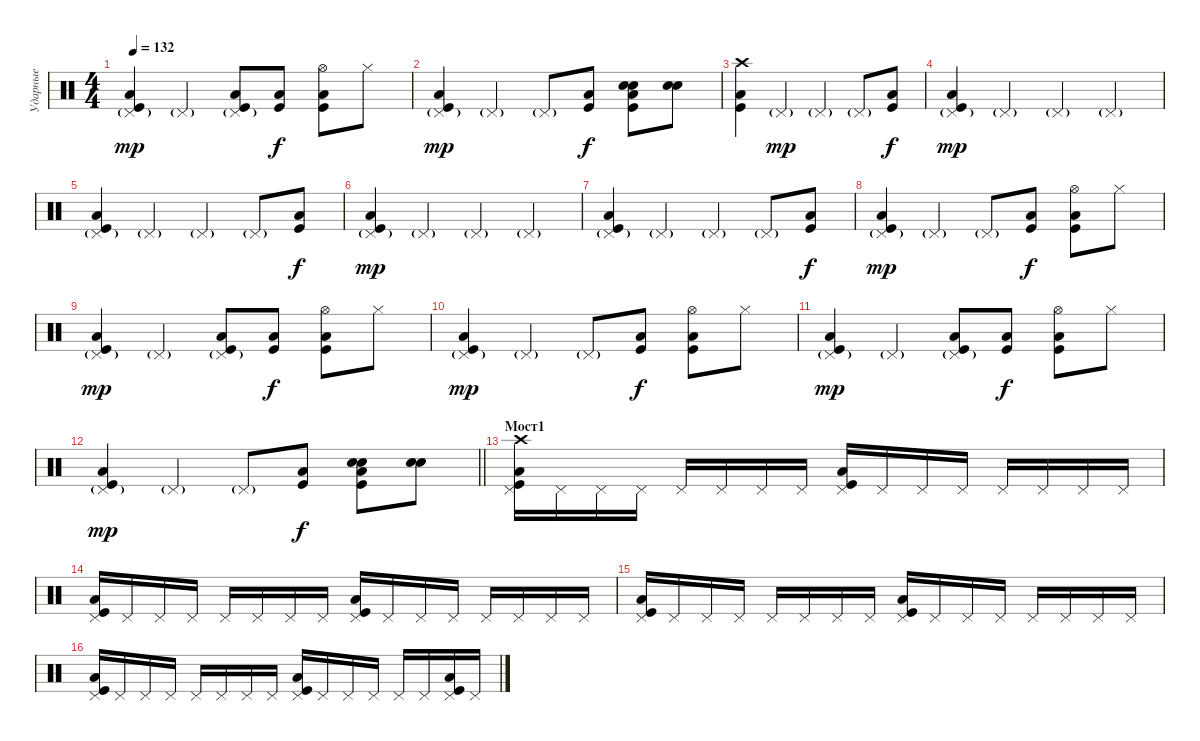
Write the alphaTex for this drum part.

\track ("Ударные" "Ударные") {instrument percussion}
\staff {score}
\articulation defaults
\ts (4 4)
\tempo 132
\clef neutral
\ks c
("Pedal Hi-Hat (hit)"{g} "Low Tom (hit)" "Kick (hit)").4{dy mp} "Pedal Hi-Hat (hit)"{g}.4 ("Pedal Hi-Hat (hit)"{g} "Low Tom (hit)" "Kick (hit)").8 ("Low Tom (hit)" "Kick (hit)").8{dy f} ("Hi-Hat (open)" "Low Tom (hit)" "Kick (hit)").8 "Hi-Hat (closed)".8 |
("Pedal Hi-Hat (hit)"{g} "Low Tom (hit)" "Kick (hit)").4{dy mp} "Pedal Hi-Hat (hit)"{g}.4 "Pedal Hi-Hat (hit)"{g}.8 ("Low Tom (hit)" "Kick (hit)").8{dy f} ("Electric Snare (hit)" "Snare (hit) 2" "Low Tom (hit)" "Kick (hit)").8 ("Electric Snare (hit)" "Snare (hit) 2").8 |
("Crash high (hit)" "Low Tom (hit)" "Kick (hit)").4 "Pedal Hi-Hat (hit)"{g}.4{dy mp} "Pedal Hi-Hat (hit)"{g}.4 "Pedal Hi-Hat (hit)"{g}.8 ("Low Tom (hit)" "Kick (hit)").8{dy f} |
("Pedal Hi-Hat (hit)"{g} "Low Tom (hit)" "Kick (hit)").4{dy mp} "Pedal Hi-Hat (hit)"{g}.4 "Pedal Hi-Hat (hit)"{g}.4 "Pedal Hi-Hat (hit)"{g}.4 |
("Pedal Hi-Hat (hit)"{g} "Low Tom (hit)" "Kick (hit)").4 "Pedal Hi-Hat (hit)"{g}.4 "Pedal Hi-Hat (hit)"{g}.4 "Pedal Hi-Hat (hit)"{g}.8 ("Low Tom (hit)" "Kick (hit)").8{dy f} |
("Pedal Hi-Hat (hit)"{g} "Low Tom (hit)" "Kick (hit)").4{dy mp} "Pedal Hi-Hat (hit)"{g}.4 "Pedal Hi-Hat (hit)"{g}.4 "Pedal Hi-Hat (hit)"{g}.4 |
("Pedal Hi-Hat (hit)"{g} "Low Tom (hit)" "Kick (hit)").4 "Pedal Hi-Hat (hit)"{g}.4 "Pedal Hi-Hat (hit)"{g}.4 "Pedal Hi-Hat (hit)"{g}.8 ("Low Tom (hit)" "Kick (hit)").8{dy f} |
("Pedal Hi-Hat (hit)"{g} "Low Tom (hit)" "Kick (hit)").4{dy mp} "Pedal Hi-Hat (hit)"{g}.4 "Pedal Hi-Hat (hit)"{g}.8 ("Low Tom (hit)" "Kick (hit)").8{dy f} ("Hi-Hat (open)" "Low Tom (hit)" "Kick (hit)").8 "Hi-Hat (closed)".8 |
("Pedal Hi-Hat (hit)"{g} "Low Tom (hit)" "Kick (hit)").4{dy mp} "Pedal Hi-Hat (hit)"{g}.4 ("Pedal Hi-Hat (hit)"{g} "Low Tom (hit)" "Kick (hit)").8 ("Low Tom (hit)" "Kick (hit)").8{dy f} ("Hi-Hat (open)" "Low Tom (hit)" "Kick (hit)").8 "Hi-Hat (closed)".8 |
("Pedal Hi-Hat (hit)"{g} "Low Tom (hit)" "Kick (hit)").4{dy mp} "Pedal Hi-Hat (hit)"{g}.4 "Pedal Hi-Hat (hit)"{g}.8 ("Low Tom (hit)" "Kick (hit)").8{dy f} ("Hi-Hat (open)" "Low Tom (hit)" "Kick (hit)").8 "Hi-Hat (closed)".8 |
("Pedal Hi-Hat (hit)"{g} "Low Tom (hit)" "Kick (hit)").4{dy mp} "Pedal Hi-Hat (hit)"{g}.4 ("Pedal Hi-Hat (hit)"{g} "Low Tom (hit)" "Kick (hit)").8 ("Low Tom (hit)" "Kick (hit)").8{dy f} ("Hi-Hat (open)" "Low Tom (hit)" "Kick (hit)").8 "Hi-Hat (closed)".8 |
\barLineRight lightlight
("Pedal Hi-Hat (hit)"{g} "Low Tom (hit)" "Kick (hit)").4{dy mp} "Pedal Hi-Hat (hit)"{g}.4 "Pedal Hi-Hat (hit)"{g}.8 ("Low Tom (hit)" "Kick (hit)").8{dy f} ("Electric Snare (hit)" "Snare (hit) 2" "Low Tom (hit)" "Kick (hit)").8 ("Electric Snare (hit)" "Snare (hit) 2").8 |
\section ("" "Мост1")
("Pedal Hi-Hat (hit)" "Crash high (hit)" "Low Tom (hit)" "Kick (hit)").16 "Pedal Hi-Hat (hit)".16 "Pedal Hi-Hat (hit)".16 "Pedal Hi-Hat (hit)".16 "Pedal Hi-Hat (hit)".16 "Pedal Hi-Hat (hit)".16 "Pedal Hi-Hat (hit)".16 "Pedal Hi-Hat (hit)".16 ("Pedal Hi-Hat (hit)" "Low Tom (hit)" "Kick (hit)").16 "Pedal Hi-Hat (hit)".16 "Pedal Hi-Hat (hit)".16 "Pedal Hi-Hat (hit)".16 "Pedal Hi-Hat (hit)".16 "Pedal Hi-Hat (hit)".16 "Pedal Hi-Hat (hit)".16 "Pedal Hi-Hat (hit)".16 |
("Pedal Hi-Hat (hit)" "Low Tom (hit)" "Kick (hit)").16 "Pedal Hi-Hat (hit)".16 "Pedal Hi-Hat (hit)".16 "Pedal Hi-Hat (hit)".16 "Pedal Hi-Hat (hit)".16 "Pedal Hi-Hat (hit)".16 "Pedal Hi-Hat (hit)".16 "Pedal Hi-Hat (hit)".16 ("Pedal Hi-Hat (hit)" "Low Tom (hit)" "Kick (hit)").16 "Pedal Hi-Hat (hit)".16 "Pedal Hi-Hat (hit)".16 "Pedal Hi-Hat (hit)".16 "Pedal Hi-Hat (hit)".16 "Pedal Hi-Hat (hit)".16 "Pedal Hi-Hat (hit)".16 "Pedal Hi-Hat (hit)".16 |
("Pedal Hi-Hat (hit)" "Low Tom (hit)" "Kick (hit)").16 "Pedal Hi-Hat (hit)".16 "Pedal Hi-Hat (hit)".16 "Pedal Hi-Hat (hit)".16 "Pedal Hi-Hat (hit)".16 "Pedal Hi-Hat (hit)".16 "Pedal Hi-Hat (hit)".16 "Pedal Hi-Hat (hit)".16 ("Pedal Hi-Hat (hit)" "Low Tom (hit)" "Kick (hit)").16 "Pedal Hi-Hat (hit)".16 "Pedal Hi-Hat (hit)".16 "Pedal Hi-Hat (hit)".16 "Pedal Hi-Hat (hit)".16 "Pedal Hi-Hat (hit)".16 "Pedal Hi-Hat (hit)".16 "Pedal Hi-Hat (hit)".16 |
("Pedal Hi-Hat (hit)" "Low Tom (hit)" "Kick (hit)").16 "Pedal Hi-Hat (hit)".16 "Pedal Hi-Hat (hit)".16 "Pedal Hi-Hat (hit)".16 "Pedal Hi-Hat (hit)".16 "Pedal Hi-Hat (hit)".16 "Pedal Hi-Hat (hit)".16 "Pedal Hi-Hat (hit)".16 ("Pedal Hi-Hat (hit)" "Low Tom (hit)" "Kick (hit)").16 "Pedal Hi-Hat (hit)".16 "Pedal Hi-Hat (hit)".16 "Pedal Hi-Hat (hit)".16 "Pedal Hi-Hat (hit)".16 "Pedal Hi-Hat (hit)".16 ("Pedal Hi-Hat (hit)" "Low Tom (hit)" "Kick (hit)").16 "Pedal Hi-Hat (hit)".16
